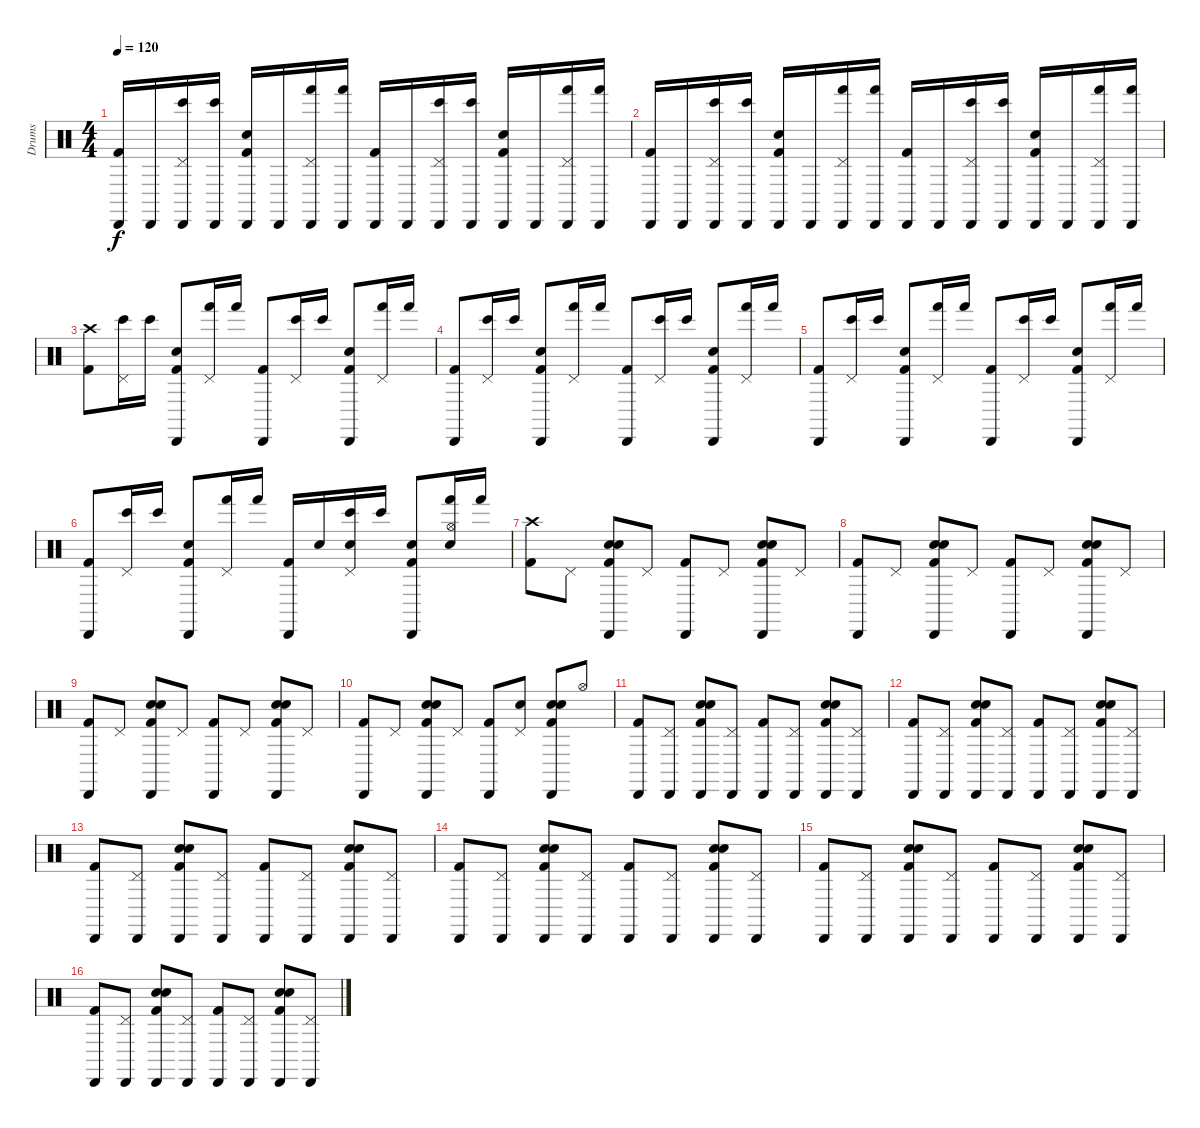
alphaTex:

\track ("Drums" "Drums") {instrument percussion}
\staff {score}
\articulation defaults
\ts (4 4)
\tempo 120
\clef neutral
\ks c
("Cabasa (hit)" "Kick (hit) 2").16{dy f} "Cabasa (hit)".16 ("Cabasa (hit)" "Pedal Hi-Hat (hit)" "Bongo High (hit)").16 ("Cabasa (hit)" "Bongo High (hit)").16 ("Hand Clap (hit)" "Cabasa (hit)" "Kick (hit) 2").16 "Cabasa (hit)".16 ("Cabasa (hit)" "Pedal Hi-Hat (hit)" "Hand (hit)").16 ("Cabasa (hit)" "Hand (hit)").16 ("Cabasa (hit)" "Kick (hit) 2").16 "Cabasa (hit)".16 ("Cabasa (hit)" "Pedal Hi-Hat (hit)" "Bongo High (hit)").16 ("Cabasa (hit)" "Bongo High (hit)").16 ("Hand Clap (hit)" "Cabasa (hit)" "Kick (hit) 2").16 "Cabasa (hit)".16 ("Cabasa (hit)" "Pedal Hi-Hat (hit)" "Hand (hit)").16 ("Cabasa (hit)" "Hand (hit)").16 |
("Cabasa (hit)" "Kick (hit) 2").16 "Cabasa (hit)".16 ("Cabasa (hit)" "Pedal Hi-Hat (hit)" "Bongo High (hit)").16 ("Cabasa (hit)" "Bongo High (hit)").16 ("Hand Clap (hit)" "Cabasa (hit)" "Kick (hit) 2").16 "Cabasa (hit)".16 ("Cabasa (hit)" "Pedal Hi-Hat (hit)" "Hand (hit)").16 ("Cabasa (hit)" "Hand (hit)").16 ("Cabasa (hit)" "Kick (hit) 2").16 "Cabasa (hit)".16 ("Cabasa (hit)" "Pedal Hi-Hat (hit)" "Bongo High (hit)").16 ("Cabasa (hit)" "Bongo High (hit)").16 ("Hand Clap (hit)" "Cabasa (hit)" "Kick (hit) 2").16 "Cabasa (hit)".16 ("Cabasa (hit)" "Pedal Hi-Hat (hit)" "Hand (hit)").16 ("Cabasa (hit)" "Hand (hit)").16 |
("Crash high (hit)" "Kick (hit) 2").8 ("Pedal Hi-Hat (hit)" "Bongo High (hit)").16 "Bongo High (hit)".16 ("Hand Clap (hit)" "Cabasa (hit)" "Kick (hit) 2").8 ("Pedal Hi-Hat (hit)" "Hand (hit)").16 "Hand (hit)".16 ("Cabasa (hit)" "Kick (hit) 2").8 ("Pedal Hi-Hat (hit)" "Bongo High (hit)").16 "Bongo High (hit)".16 ("Hand Clap (hit)" "Cabasa (hit)" "Kick (hit) 2").8 ("Pedal Hi-Hat (hit)" "Hand (hit)").16 "Hand (hit)".16 |
("Cabasa (hit)" "Kick (hit) 2").8 ("Pedal Hi-Hat (hit)" "Bongo High (hit)").16 "Bongo High (hit)".16 ("Hand Clap (hit)" "Cabasa (hit)" "Kick (hit) 2").8 ("Pedal Hi-Hat (hit)" "Hand (hit)").16 "Hand (hit)".16 ("Cabasa (hit)" "Kick (hit) 2").8 ("Pedal Hi-Hat (hit)" "Bongo High (hit)").16 "Bongo High (hit)".16 ("Hand Clap (hit)" "Cabasa (hit)" "Kick (hit) 2").8 ("Pedal Hi-Hat (hit)" "Hand (hit)").16 "Hand (hit)".16 |
("Cabasa (hit)" "Kick (hit) 2").8 ("Pedal Hi-Hat (hit)" "Bongo High (hit)").16 "Bongo High (hit)".16 ("Hand Clap (hit)" "Cabasa (hit)" "Kick (hit) 2").8 ("Pedal Hi-Hat (hit)" "Hand (hit)").16 "Hand (hit)".16 ("Cabasa (hit)" "Kick (hit) 2").8 ("Pedal Hi-Hat (hit)" "Bongo High (hit)").16 "Bongo High (hit)".16 ("Hand Clap (hit)" "Cabasa (hit)" "Kick (hit) 2").8 ("Pedal Hi-Hat (hit)" "Hand (hit)").16 "Hand (hit)".16 |
("Cabasa (hit)" "Kick (hit) 2").8 ("Pedal Hi-Hat (hit)" "Bongo High (hit)").16 "Bongo High (hit)".16 ("Hand Clap (hit)" "Cabasa (hit)" "Kick (hit) 2").8 ("Pedal Hi-Hat (hit)" "Hand (hit)").16 "Hand (hit)".16 ("Cabasa (hit)" "Kick (hit) 2").16 "Electric Snare (hit)".16 ("Electric Snare (hit)" "Pedal Hi-Hat (hit)" "Bongo High (hit)").16 "Bongo High (hit)".16 ("Hand Clap (hit)" "Cabasa (hit)" "Kick (hit) 2").8 ("Hi-Hat (open)" "Electric Snare (hit)" "Hand (hit)").16 "Hand (hit)".16 |
("Crash high (hit)" "Kick (hit) 2").8 "Pedal Hi-Hat (hit)".8 ("Hand Clap (hit)" "Cabasa (hit)" "Electric Snare (hit)" "Kick (hit) 2").8 "Pedal Hi-Hat (hit)".8 ("Cabasa (hit)" "Kick (hit) 2").8 "Pedal Hi-Hat (hit)".8 ("Hand Clap (hit)" "Cabasa (hit)" "Electric Snare (hit)" "Kick (hit) 2").8 "Pedal Hi-Hat (hit)".8 |
("Cabasa (hit)" "Kick (hit) 2").8 "Pedal Hi-Hat (hit)".8 ("Hand Clap (hit)" "Cabasa (hit)" "Electric Snare (hit)" "Kick (hit) 2").8 "Pedal Hi-Hat (hit)".8 ("Cabasa (hit)" "Kick (hit) 2").8 "Pedal Hi-Hat (hit)".8 ("Hand Clap (hit)" "Cabasa (hit)" "Electric Snare (hit)" "Kick (hit) 2").8 "Pedal Hi-Hat (hit)".8 |
("Cabasa (hit)" "Kick (hit) 2").8 "Pedal Hi-Hat (hit)".8 ("Hand Clap (hit)" "Cabasa (hit)" "Electric Snare (hit)" "Kick (hit) 2").8 "Pedal Hi-Hat (hit)".8 ("Cabasa (hit)" "Kick (hit) 2").8 "Pedal Hi-Hat (hit)".8 ("Hand Clap (hit)" "Cabasa (hit)" "Electric Snare (hit)" "Kick (hit) 2").8 "Pedal Hi-Hat (hit)".8 |
("Cabasa (hit)" "Kick (hit) 2").8 "Pedal Hi-Hat (hit)".8 ("Hand Clap (hit)" "Cabasa (hit)" "Electric Snare (hit)" "Kick (hit) 2").8 "Pedal Hi-Hat (hit)".8 ("Cabasa (hit)" "Kick (hit) 2").8 ("Pedal Hi-Hat (hit)" "Electric Snare (hit)").8 ("Hand Clap (hit)" "Cabasa (hit)" "Electric Snare (hit)" "Kick (hit) 2").8 "Hi-Hat (open)".8 |
("Cabasa (hit)" "Kick (hit) 2").8 ("Cabasa (hit)" "Pedal Hi-Hat (hit)").8 ("Hand Clap (hit)" "Cabasa (hit)" "Electric Snare (hit)" "Kick (hit) 2").8 ("Cabasa (hit)" "Pedal Hi-Hat (hit)").8 ("Cabasa (hit)" "Kick (hit) 2").8 ("Cabasa (hit)" "Pedal Hi-Hat (hit)").8 ("Hand Clap (hit)" "Cabasa (hit)" "Electric Snare (hit)" "Kick (hit) 2").8 ("Cabasa (hit)" "Pedal Hi-Hat (hit)").8 |
("Cabasa (hit)" "Kick (hit) 2").8 ("Cabasa (hit)" "Pedal Hi-Hat (hit)").8 ("Hand Clap (hit)" "Cabasa (hit)" "Electric Snare (hit)" "Kick (hit) 2").8 ("Cabasa (hit)" "Pedal Hi-Hat (hit)").8 ("Cabasa (hit)" "Kick (hit) 2").8 ("Cabasa (hit)" "Pedal Hi-Hat (hit)").8 ("Hand Clap (hit)" "Cabasa (hit)" "Electric Snare (hit)" "Kick (hit) 2").8 ("Cabasa (hit)" "Pedal Hi-Hat (hit)").8 |
("Cabasa (hit)" "Kick (hit) 2").8 ("Cabasa (hit)" "Pedal Hi-Hat (hit)").8 ("Hand Clap (hit)" "Cabasa (hit)" "Electric Snare (hit)" "Kick (hit) 2").8 ("Cabasa (hit)" "Pedal Hi-Hat (hit)").8 ("Cabasa (hit)" "Kick (hit) 2").8 ("Cabasa (hit)" "Pedal Hi-Hat (hit)").8 ("Hand Clap (hit)" "Cabasa (hit)" "Electric Snare (hit)" "Kick (hit) 2").8 ("Cabasa (hit)" "Pedal Hi-Hat (hit)").8 |
("Cabasa (hit)" "Kick (hit) 2").8 ("Cabasa (hit)" "Pedal Hi-Hat (hit)").8 ("Hand Clap (hit)" "Cabasa (hit)" "Electric Snare (hit)" "Kick (hit) 2").8 ("Cabasa (hit)" "Pedal Hi-Hat (hit)").8 ("Cabasa (hit)" "Kick (hit) 2").8 ("Cabasa (hit)" "Pedal Hi-Hat (hit)").8 ("Hand Clap (hit)" "Cabasa (hit)" "Electric Snare (hit)" "Kick (hit) 2").8 ("Cabasa (hit)" "Pedal Hi-Hat (hit)").8 |
("Cabasa (hit)" "Kick (hit) 2").8 ("Cabasa (hit)" "Pedal Hi-Hat (hit)").8 ("Hand Clap (hit)" "Cabasa (hit)" "Electric Snare (hit)" "Kick (hit) 2").8 ("Cabasa (hit)" "Pedal Hi-Hat (hit)").8 ("Cabasa (hit)" "Kick (hit) 2").8 ("Cabasa (hit)" "Pedal Hi-Hat (hit)").8 ("Hand Clap (hit)" "Cabasa (hit)" "Electric Snare (hit)" "Kick (hit) 2").8 ("Cabasa (hit)" "Pedal Hi-Hat (hit)").8 |
("Cabasa (hit)" "Kick (hit) 2").8 ("Cabasa (hit)" "Pedal Hi-Hat (hit)").8 ("Hand Clap (hit)" "Cabasa (hit)" "Electric Snare (hit)" "Kick (hit) 2").8 ("Cabasa (hit)" "Pedal Hi-Hat (hit)").8 ("Cabasa (hit)" "Kick (hit) 2").8 ("Cabasa (hit)" "Pedal Hi-Hat (hit)").8 ("Hand Clap (hit)" "Cabasa (hit)" "Electric Snare (hit)" "Kick (hit) 2").8 ("Cabasa (hit)" "Pedal Hi-Hat (hit)").8
